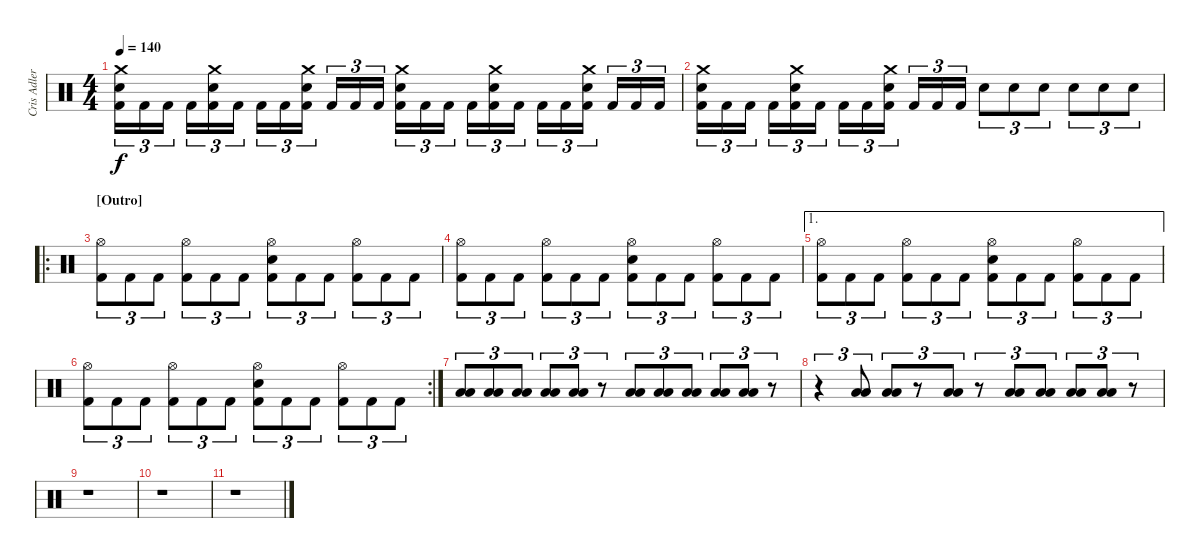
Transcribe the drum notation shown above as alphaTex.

\track ("Cris Adler" "Cris Adler") {instrument percussion}
\staff {score}
\articulation defaults
\ts (4 4)
\tempo 140
\clef neutral
\ks c
("Crash medium (hit)" "Electric Snare (hit)" "Kick (hit) 2").16{tu (3 2) dy f} "Kick (hit) 2".16{tu (3 2)} "Kick (hit) 2".16{tu (3 2)} "Kick (hit) 2".16{tu (3 2)} ("Crash medium (hit)" "Electric Snare (hit)" "Kick (hit) 2").16{tu (3 2)} "Kick (hit) 2".16{tu (3 2)} "Kick (hit) 2".16{tu (3 2)} "Kick (hit) 2".16{tu (3 2)} ("Crash medium (hit)" "Electric Snare (hit)" "Kick (hit) 2").16{tu (3 2)} "Kick (hit) 2".16{tu (3 2)} "Kick (hit) 2".16{tu (3 2)} "Kick (hit) 2".16{tu (3 2)} ("Crash medium (hit)" "Electric Snare (hit)" "Kick (hit) 2").16{tu (3 2)} "Kick (hit) 2".16{tu (3 2)} "Kick (hit) 2".16{tu (3 2)} "Kick (hit) 2".16{tu (3 2)} ("Crash medium (hit)" "Electric Snare (hit)" "Kick (hit) 2").16{tu (3 2)} "Kick (hit) 2".16{tu (3 2)} "Kick (hit) 2".16{tu (3 2)} "Kick (hit) 2".16{tu (3 2)} ("Crash medium (hit)" "Electric Snare (hit)" "Kick (hit) 2").16{tu (3 2)} "Kick (hit) 2".16{tu (3 2)} "Kick (hit) 2".16{tu (3 2)} "Kick (hit) 2".16{tu (3 2)} |
("Crash medium (hit)" "Electric Snare (hit)" "Kick (hit) 2").16{tu (3 2)} "Kick (hit) 2".16{tu (3 2)} "Kick (hit) 2".16{tu (3 2)} "Kick (hit) 2".16{tu (3 2)} ("Crash medium (hit)" "Electric Snare (hit)" "Kick (hit) 2").16{tu (3 2)} "Kick (hit) 2".16{tu (3 2)} "Kick (hit) 2".16{tu (3 2)} "Kick (hit) 2".16{tu (3 2)} ("Crash medium (hit)" "Electric Snare (hit)" "Kick (hit) 2").16{tu (3 2)} "Kick (hit) 2".16{tu (3 2)} "Kick (hit) 2".16{tu (3 2)} "Kick (hit) 2".16{tu (3 2)} "Electric Snare (hit)".8{tu (3 2)} "Electric Snare (hit)".8{tu (3 2)} "Electric Snare (hit)".8{tu (3 2)} "Electric Snare (hit)".8{tu (3 2)} "Electric Snare (hit)".8{tu (3 2)} "Electric Snare (hit)".8{tu (3 2)} |
\ro
\section ("" "[Outro]")
("Hi-Hat (open)" "Kick (hit) 2").8{tu (3 2)} "Kick (hit) 2".8{tu (3 2)} "Kick (hit) 2".8{tu (3 2)} ("Hi-Hat (open)" "Kick (hit) 2").8{tu (3 2)} "Kick (hit) 2".8{tu (3 2)} "Kick (hit) 2".8{tu (3 2)} ("Hi-Hat (open)" "Electric Snare (hit)" "Kick (hit) 2").8{tu (3 2)} "Kick (hit) 2".8{tu (3 2)} "Kick (hit) 2".8{tu (3 2)} ("Hi-Hat (open)" "Kick (hit) 2").8{tu (3 2)} "Kick (hit) 2".8{tu (3 2)} "Kick (hit) 2".8{tu (3 2)} |
("Hi-Hat (open)" "Kick (hit) 2").8{tu (3 2)} "Kick (hit) 2".8{tu (3 2)} "Kick (hit) 2".8{tu (3 2)} ("Hi-Hat (open)" "Kick (hit) 2").8{tu (3 2)} "Kick (hit) 2".8{tu (3 2)} "Kick (hit) 2".8{tu (3 2)} ("Hi-Hat (open)" "Electric Snare (hit)" "Kick (hit) 2").8{tu (3 2)} "Kick (hit) 2".8{tu (3 2)} "Kick (hit) 2".8{tu (3 2)} ("Hi-Hat (open)" "Kick (hit) 2").8{tu (3 2)} "Kick (hit) 2".8{tu (3 2)} "Kick (hit) 2".8{tu (3 2)} |
\ae 1
("Hi-Hat (open)" "Kick (hit) 2").8{tu (3 2)} "Kick (hit) 2".8{tu (3 2)} "Kick (hit) 2".8{tu (3 2)} ("Hi-Hat (open)" "Kick (hit) 2").8{tu (3 2)} "Kick (hit) 2".8{tu (3 2)} "Kick (hit) 2".8{tu (3 2)} ("Hi-Hat (open)" "Electric Snare (hit)" "Kick (hit) 2").8{tu (3 2)} "Kick (hit) 2".8{tu (3 2)} "Kick (hit) 2".8{tu (3 2)} ("Hi-Hat (open)" "Kick (hit) 2").8{tu (3 2)} "Kick (hit) 2".8{tu (3 2)} "Kick (hit) 2".8{tu (3 2)} |
\rc 2
("Hi-Hat (open)" "Kick (hit) 2").8{tu (3 2)} "Kick (hit) 2".8{tu (3 2)} "Kick (hit) 2".8{tu (3 2)} ("Hi-Hat (open)" "Kick (hit) 2").8{tu (3 2)} "Kick (hit) 2".8{tu (3 2)} "Kick (hit) 2".8{tu (3 2)} ("Hi-Hat (open)" "Electric Snare (hit)" "Kick (hit) 2").8{tu (3 2)} "Kick (hit) 2".8{tu (3 2)} "Kick (hit) 2".8{tu (3 2)} ("Hi-Hat (open)" "Kick (hit) 2").8{tu (3 2)} "Kick (hit) 2".8{tu (3 2)} "Kick (hit) 2".8{tu (3 2)} |
("Low Floor Tom (hit)" "Low Tom (hit)").8{tu (3 2)} ("Low Floor Tom (hit)" "Low Tom (hit)").8{tu (3 2)} ("Low Floor Tom (hit)" "Low Tom (hit)").8{tu (3 2)} ("Low Floor Tom (hit)" "Low Tom (hit)").8{tu (3 2)} ("Low Floor Tom (hit)" "Low Tom (hit)").8{tu (3 2)} r.8{tu (3 2)} ("Low Floor Tom (hit)" "Low Tom (hit)").8{tu (3 2)} ("Low Floor Tom (hit)" "Low Tom (hit)").8{tu (3 2)} ("Low Floor Tom (hit)" "Low Tom (hit)").8{tu (3 2)} ("Low Floor Tom (hit)" "Low Tom (hit)").8{tu (3 2)} ("Low Floor Tom (hit)" "Low Tom (hit)").8{tu (3 2)} r.8{tu (3 2)} |
r.4{tu (3 2)} ("Low Floor Tom (hit)" "Low Tom (hit)").8{tu (3 2)} ("Low Floor Tom (hit)" "Low Tom (hit)").8{tu (3 2)} r.8{tu (3 2)} ("Low Floor Tom (hit)" "Low Tom (hit)").8{tu (3 2)} r.8{tu (3 2)} ("Low Floor Tom (hit)" "Low Tom (hit)").8{tu (3 2)} ("Low Floor Tom (hit)" "Low Tom (hit)").8{tu (3 2)} ("Low Floor Tom (hit)" "Low Tom (hit)").8{tu (3 2)} ("Low Floor Tom (hit)" "Low Tom (hit)").8{tu (3 2)} r.8{tu (3 2)} |
r.1 |
r.1 |
r.1
